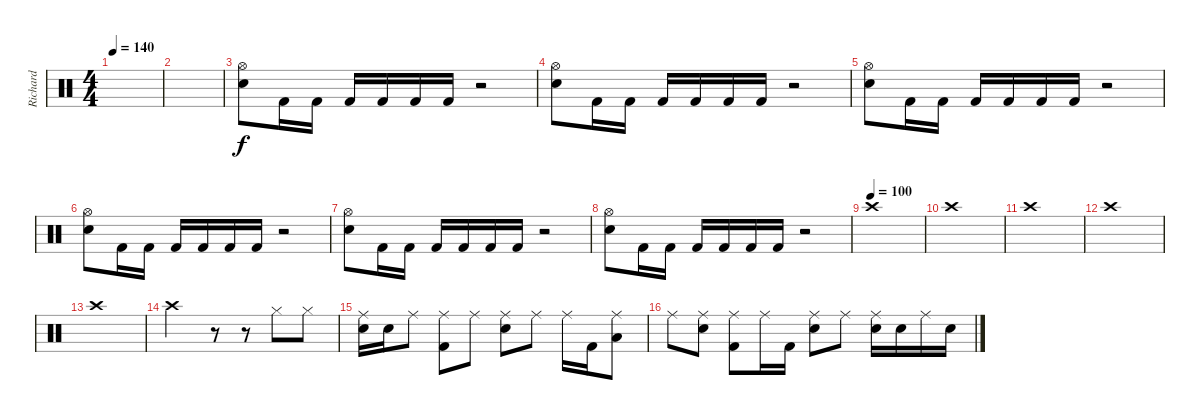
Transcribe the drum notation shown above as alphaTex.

\track ("Richard" "Richard") {instrument percussion}
\staff {score}
\articulation defaults
\ts (4 4)
\tempo 140
\clef neutral
\ks c
|
|
("Hi-Hat (open)" "Snare (hit) 2").8 "Kick (hit) 2".16 "Kick (hit) 2".16 "Kick (hit) 2".16 "Kick (hit) 2".16 "Kick (hit) 2".16 "Kick (hit) 2".16 r.2 |
("Hi-Hat (open)" "Snare (hit) 2").8 "Kick (hit) 2".16 "Kick (hit) 2".16 "Kick (hit) 2".16 "Kick (hit) 2".16 "Kick (hit) 2".16 "Kick (hit) 2".16 r.2 |
("Hi-Hat (open)" "Snare (hit) 2").8 "Kick (hit) 2".16 "Kick (hit) 2".16 "Kick (hit) 2".16 "Kick (hit) 2".16 "Kick (hit) 2".16 "Kick (hit) 2".16 r.2 |
("Hi-Hat (open)" "Snare (hit) 2").8 "Kick (hit) 2".16 "Kick (hit) 2".16 "Kick (hit) 2".16 "Kick (hit) 2".16 "Kick (hit) 2".16 "Kick (hit) 2".16 r.2 |
("Hi-Hat (open)" "Snare (hit) 2").8 "Kick (hit) 2".16 "Kick (hit) 2".16 "Kick (hit) 2".16 "Kick (hit) 2".16 "Kick (hit) 2".16 "Kick (hit) 2".16 r.2 |
("Hi-Hat (open)" "Snare (hit) 2").8 "Kick (hit) 2".16 "Kick (hit) 2".16 "Kick (hit) 2".16 "Kick (hit) 2".16 "Kick (hit) 2".16 "Kick (hit) 2".16 r.2 |
\tempo (100)
"Crash high (hit)".1 |
"Crash high (hit)".1 |
"Crash high (hit)".1 |
"Crash high (hit)".1 |
"Crash high (hit)".1 |
"Crash high (hit)".2 r.8 r.8 "Hi-Hat (closed)".8 "Hi-Hat (closed)".8 |
("Ride (middle)" "Snare (hit) 2").16 "Snare (hit) 2".16 "Ride (middle)".8 ("Ride (middle)" "Kick (hit) 2").8 "Ride (middle)".8 ("Snare (hit) 2" "Ride (middle)").8 "Ride (middle)".8 "Ride (middle)".16 "Kick (hit) 2".16 ("Low Floor Tom (hit)" "Ride (middle)").8 |
"Ride (middle)".8 ("Snare (hit) 2" "Ride (middle)").8 ("Ride (middle)" "Kick (hit) 2").8 "Ride (middle)".16 "Kick (hit) 2".16 ("Ride (middle)" "Snare (hit) 2").8 "Ride (middle)".8 ("Snare (hit) 2" "Ride (middle)").16 "Snare (hit) 2".16 "Ride (middle)".16 "Snare (hit) 2".16
